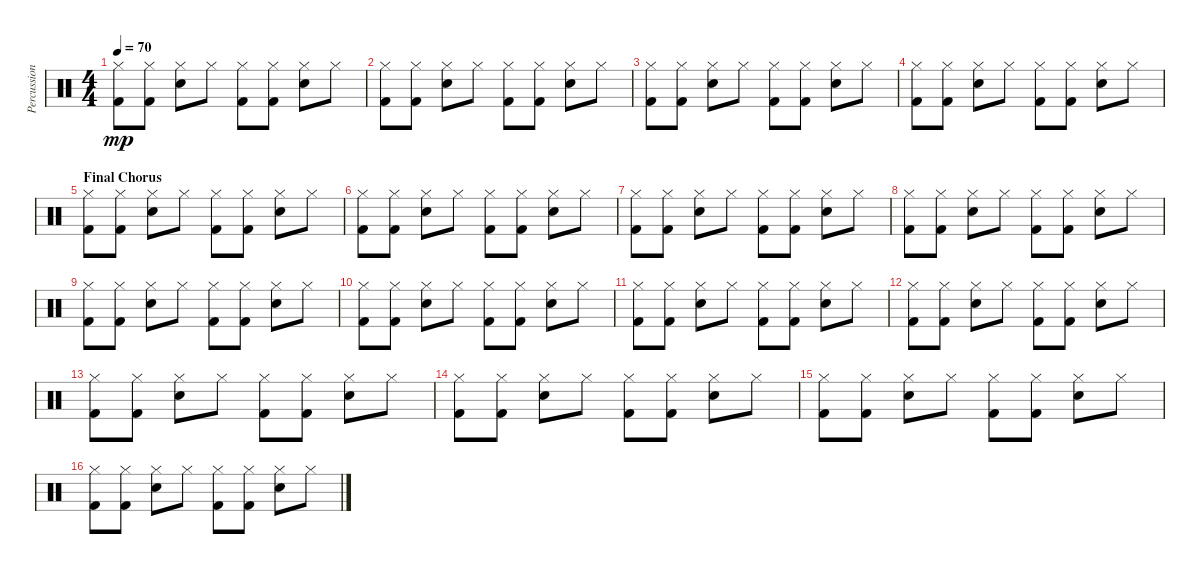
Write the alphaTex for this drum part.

\track ("Percussions" "Percussion") {instrument percussion}
\staff {score}
\articulation defaults
\ts (4 4)
\tempo 70
\clef neutral
\ks c
("Kick (hit) 2" "Hi-Hat (closed)").8{dy mp} ("Kick (hit) 2" "Hi-Hat (closed)").8 ("Electric Snare (hit)" "Hi-Hat (closed)").8 "Hi-Hat (closed)".8 ("Kick (hit) 2" "Hi-Hat (closed)").8 ("Kick (hit) 2" "Hi-Hat (closed)").8 ("Electric Snare (hit)" "Hi-Hat (closed)").8 "Hi-Hat (closed)".8 |
("Kick (hit) 2" "Hi-Hat (closed)").8 ("Kick (hit) 2" "Hi-Hat (closed)").8 ("Electric Snare (hit)" "Hi-Hat (closed)").8 "Hi-Hat (closed)".8 ("Kick (hit) 2" "Hi-Hat (closed)").8 ("Kick (hit) 2" "Hi-Hat (closed)").8 ("Electric Snare (hit)" "Hi-Hat (closed)").8 "Hi-Hat (closed)".8 |
("Kick (hit) 2" "Hi-Hat (closed)").8 ("Kick (hit) 2" "Hi-Hat (closed)").8 ("Electric Snare (hit)" "Hi-Hat (closed)").8 "Hi-Hat (closed)".8 ("Kick (hit) 2" "Hi-Hat (closed)").8 ("Kick (hit) 2" "Hi-Hat (closed)").8 ("Electric Snare (hit)" "Hi-Hat (closed)").8 "Hi-Hat (closed)".8 |
("Kick (hit) 2" "Hi-Hat (closed)").8 ("Kick (hit) 2" "Hi-Hat (closed)").8 ("Electric Snare (hit)" "Hi-Hat (closed)").8 "Hi-Hat (closed)".8 ("Kick (hit) 2" "Hi-Hat (closed)").8 ("Kick (hit) 2" "Hi-Hat (closed)").8 ("Electric Snare (hit)" "Hi-Hat (closed)").8 "Hi-Hat (closed)".8 |
\section ("" "Final Chorus")
("Kick (hit) 2" "Hi-Hat (closed)").8 ("Kick (hit) 2" "Hi-Hat (closed)").8 ("Electric Snare (hit)" "Hi-Hat (closed)").8 "Hi-Hat (closed)".8 ("Kick (hit) 2" "Hi-Hat (closed)").8 ("Kick (hit) 2" "Hi-Hat (closed)").8 ("Electric Snare (hit)" "Hi-Hat (closed)").8 "Hi-Hat (closed)".8 |
("Kick (hit) 2" "Hi-Hat (closed)").8 ("Kick (hit) 2" "Hi-Hat (closed)").8 ("Electric Snare (hit)" "Hi-Hat (closed)").8 "Hi-Hat (closed)".8 ("Kick (hit) 2" "Hi-Hat (closed)").8 ("Kick (hit) 2" "Hi-Hat (closed)").8 ("Electric Snare (hit)" "Hi-Hat (closed)").8 "Hi-Hat (closed)".8 |
("Kick (hit) 2" "Hi-Hat (closed)").8 ("Kick (hit) 2" "Hi-Hat (closed)").8 ("Electric Snare (hit)" "Hi-Hat (closed)").8 "Hi-Hat (closed)".8 ("Kick (hit) 2" "Hi-Hat (closed)").8 ("Kick (hit) 2" "Hi-Hat (closed)").8 ("Electric Snare (hit)" "Hi-Hat (closed)").8 "Hi-Hat (closed)".8 |
("Kick (hit) 2" "Hi-Hat (closed)").8 ("Kick (hit) 2" "Hi-Hat (closed)").8 ("Electric Snare (hit)" "Hi-Hat (closed)").8 "Hi-Hat (closed)".8 ("Kick (hit) 2" "Hi-Hat (closed)").8 ("Kick (hit) 2" "Hi-Hat (closed)").8 ("Electric Snare (hit)" "Hi-Hat (closed)").8 "Hi-Hat (closed)".8 |
("Kick (hit) 2" "Hi-Hat (closed)").8 ("Kick (hit) 2" "Hi-Hat (closed)").8 ("Electric Snare (hit)" "Hi-Hat (closed)").8 "Hi-Hat (closed)".8 ("Kick (hit) 2" "Hi-Hat (closed)").8 ("Kick (hit) 2" "Hi-Hat (closed)").8 ("Electric Snare (hit)" "Hi-Hat (closed)").8 "Hi-Hat (closed)".8 |
("Kick (hit) 2" "Hi-Hat (closed)").8 ("Kick (hit) 2" "Hi-Hat (closed)").8 ("Electric Snare (hit)" "Hi-Hat (closed)").8 "Hi-Hat (closed)".8 ("Kick (hit) 2" "Hi-Hat (closed)").8 ("Kick (hit) 2" "Hi-Hat (closed)").8 ("Electric Snare (hit)" "Hi-Hat (closed)").8 "Hi-Hat (closed)".8 |
("Kick (hit) 2" "Hi-Hat (closed)").8 ("Kick (hit) 2" "Hi-Hat (closed)").8 ("Electric Snare (hit)" "Hi-Hat (closed)").8 "Hi-Hat (closed)".8 ("Kick (hit) 2" "Hi-Hat (closed)").8 ("Kick (hit) 2" "Hi-Hat (closed)").8 ("Electric Snare (hit)" "Hi-Hat (closed)").8 "Hi-Hat (closed)".8 |
("Kick (hit) 2" "Hi-Hat (closed)").8 ("Kick (hit) 2" "Hi-Hat (closed)").8 ("Electric Snare (hit)" "Hi-Hat (closed)").8 "Hi-Hat (closed)".8 ("Kick (hit) 2" "Hi-Hat (closed)").8 ("Kick (hit) 2" "Hi-Hat (closed)").8 ("Electric Snare (hit)" "Hi-Hat (closed)").8 "Hi-Hat (closed)".8 |
("Kick (hit) 2" "Hi-Hat (closed)").8 ("Kick (hit) 2" "Hi-Hat (closed)").8 ("Electric Snare (hit)" "Hi-Hat (closed)").8 "Hi-Hat (closed)".8 ("Kick (hit) 2" "Hi-Hat (closed)").8 ("Kick (hit) 2" "Hi-Hat (closed)").8 ("Electric Snare (hit)" "Hi-Hat (closed)").8 "Hi-Hat (closed)".8 |
("Kick (hit) 2" "Hi-Hat (closed)").8 ("Kick (hit) 2" "Hi-Hat (closed)").8 ("Electric Snare (hit)" "Hi-Hat (closed)").8 "Hi-Hat (closed)".8 ("Kick (hit) 2" "Hi-Hat (closed)").8 ("Kick (hit) 2" "Hi-Hat (closed)").8 ("Electric Snare (hit)" "Hi-Hat (closed)").8 "Hi-Hat (closed)".8 |
("Kick (hit) 2" "Hi-Hat (closed)").8 ("Kick (hit) 2" "Hi-Hat (closed)").8 ("Electric Snare (hit)" "Hi-Hat (closed)").8 "Hi-Hat (closed)".8 ("Kick (hit) 2" "Hi-Hat (closed)").8 ("Kick (hit) 2" "Hi-Hat (closed)").8 ("Electric Snare (hit)" "Hi-Hat (closed)").8 "Hi-Hat (closed)".8 |
("Kick (hit) 2" "Hi-Hat (closed)").8 ("Kick (hit) 2" "Hi-Hat (closed)").8 ("Electric Snare (hit)" "Hi-Hat (closed)").8 "Hi-Hat (closed)".8 ("Kick (hit) 2" "Hi-Hat (closed)").8 ("Kick (hit) 2" "Hi-Hat (closed)").8 ("Electric Snare (hit)" "Hi-Hat (closed)").8 "Hi-Hat (closed)".8
